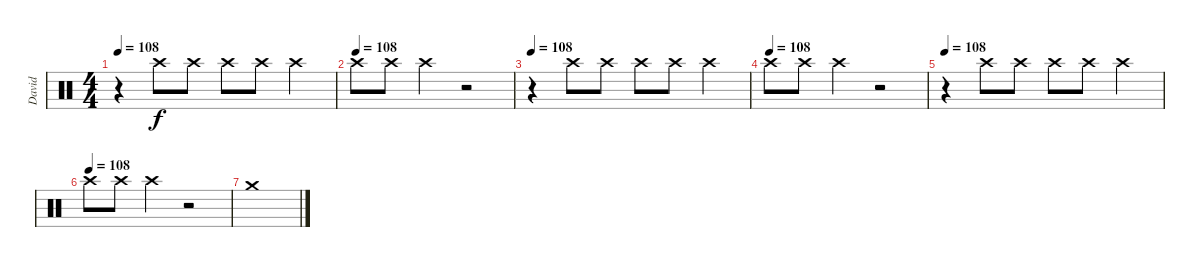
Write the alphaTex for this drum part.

\track ("David" "David") {instrument percussion}
\staff {score}
\articulation defaults
\ts (4 4)
\tempo 108
\clef neutral
\ks c
r.4{dy f} "Crash high (hit)".8 "Crash high (hit)".8 "Crash high (hit)".8 "Crash high (hit)".8 "Crash high (hit)".4 |
\tempo (108)
"Crash high (hit)".8 "Crash high (hit)".8 "Crash high (hit)".4 r.2 |
\tempo 108
r.4 "Crash high (hit)".8 "Crash high (hit)".8 "Crash high (hit)".8 "Crash high (hit)".8 "Crash high (hit)".4 |
\tempo (108)
"Crash high (hit)".8 "Crash high (hit)".8 "Crash high (hit)".4 r.2 |
\tempo 108
r.4 "Crash high (hit)".8 "Crash high (hit)".8 "Crash high (hit)".8 "Crash high (hit)".8 "Crash high (hit)".4 |
\tempo (108)
"Crash high (hit)".8 "Crash high (hit)".8 "Crash high (hit)".4 r.2 |
"Crash medium (hit)".1
